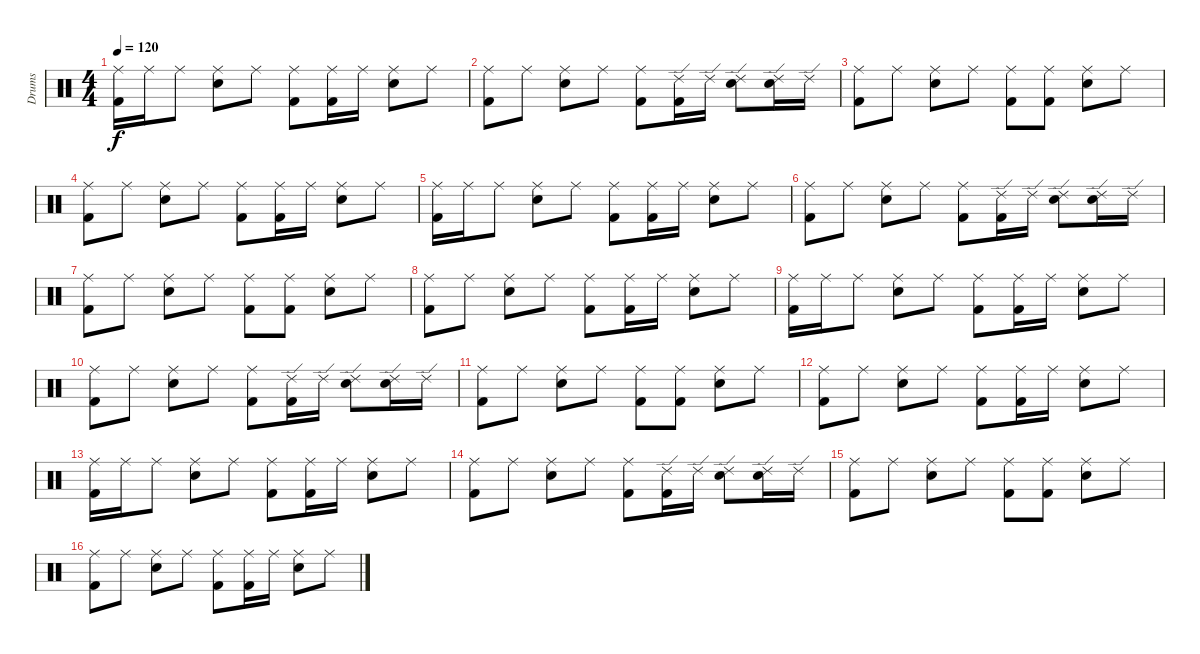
\track ("Drums" "Drums") {instrument percussion}
\staff {score}
\articulation defaults
\ts (4 4)
\tempo 120
\clef neutral
\ks c
("Ride (middle)" "Kick (hit) 2").16{dy f} "Ride (middle)".16 "Ride (middle)".8 ("Ride (middle)" "Electric Snare (hit)").8 "Ride (middle)".8 ("Ride (middle)" "Kick (hit) 2").8 ("Ride (middle)" "Kick (hit) 2").16 "Ride (middle)".16 ("Ride (middle)" "Electric Snare (hit)").8 "Ride (middle)".8 |
("Ride (middle)" "Kick (hit) 2").8 "Ride (middle)".8 ("Ride (middle)" "Electric Snare (hit)").8 "Ride (middle)".8 ("Ride (middle)" "Kick (hit) 2").8 ("Ride (edge) 2" "Kick (hit) 2").16 "Ride (edge) 2".16 ("Ride (edge) 2" "Electric Snare (hit)").8 ("Ride (edge) 2" "Electric Snare (hit)").16 "Ride (edge) 2".16 |
("Ride (middle)" "Kick (hit) 2").8{volume 11} "Ride (middle)".8 ("Ride (middle)" "Electric Snare (hit)").8 "Ride (middle)".8 ("Ride (middle)" "Kick (hit) 2").8 ("Ride (middle)" "Kick (hit) 2").8 ("Ride (middle)" "Electric Snare (hit)").8 "Ride (middle)".8 |
("Ride (middle)" "Kick (hit) 2").8 "Ride (middle)".8 ("Ride (middle)" "Electric Snare (hit)").8 "Ride (middle)".8 ("Ride (middle)" "Kick (hit) 2").8 ("Ride (middle)" "Kick (hit) 2").16 "Ride (middle)".16 ("Ride (middle)" "Electric Snare (hit)").8 "Ride (middle)".8 |
("Ride (middle)" "Kick (hit) 2").16 "Ride (middle)".16 "Ride (middle)".8 ("Ride (middle)" "Electric Snare (hit)").8 "Ride (middle)".8 ("Ride (middle)" "Kick (hit) 2").8 ("Ride (middle)" "Kick (hit) 2").16 "Ride (middle)".16 ("Ride (middle)" "Electric Snare (hit)").8 "Ride (middle)".8 |
("Ride (middle)" "Kick (hit) 2").8 "Ride (middle)".8 ("Ride (middle)" "Electric Snare (hit)").8 "Ride (middle)".8 ("Ride (middle)" "Kick (hit) 2").8 ("Ride (edge) 2" "Kick (hit) 2").16 "Ride (edge) 2".16 ("Ride (edge) 2" "Electric Snare (hit)").8 ("Ride (edge) 2" "Electric Snare (hit)").16 "Ride (edge) 2".16 |
("Ride (middle)" "Kick (hit) 2").8{volume 11} "Ride (middle)".8 ("Ride (middle)" "Electric Snare (hit)").8 "Ride (middle)".8 ("Ride (middle)" "Kick (hit) 2").8 ("Ride (middle)" "Kick (hit) 2").8 ("Ride (middle)" "Electric Snare (hit)").8 "Ride (middle)".8 |
("Ride (middle)" "Kick (hit) 2").8 "Ride (middle)".8 ("Ride (middle)" "Electric Snare (hit)").8 "Ride (middle)".8 ("Ride (middle)" "Kick (hit) 2").8 ("Ride (middle)" "Kick (hit) 2").16 "Ride (middle)".16 ("Ride (middle)" "Electric Snare (hit)").8 "Ride (middle)".8 |
("Ride (middle)" "Kick (hit) 2").16 "Ride (middle)".16 "Ride (middle)".8 ("Ride (middle)" "Electric Snare (hit)").8 "Ride (middle)".8 ("Ride (middle)" "Kick (hit) 2").8 ("Ride (middle)" "Kick (hit) 2").16 "Ride (middle)".16 ("Ride (middle)" "Electric Snare (hit)").8 "Ride (middle)".8 |
("Ride (middle)" "Kick (hit) 2").8 "Ride (middle)".8 ("Ride (middle)" "Electric Snare (hit)").8 "Ride (middle)".8 ("Ride (middle)" "Kick (hit) 2").8 ("Ride (edge) 2" "Kick (hit) 2").16 "Ride (edge) 2".16 ("Ride (edge) 2" "Electric Snare (hit)").8 ("Ride (edge) 2" "Electric Snare (hit)").16 "Ride (edge) 2".16 |
("Ride (middle)" "Kick (hit) 2").8{volume 11} "Ride (middle)".8 ("Ride (middle)" "Electric Snare (hit)").8 "Ride (middle)".8 ("Ride (middle)" "Kick (hit) 2").8 ("Ride (middle)" "Kick (hit) 2").8 ("Ride (middle)" "Electric Snare (hit)").8 "Ride (middle)".8 |
("Ride (middle)" "Kick (hit) 2").8 "Ride (middle)".8 ("Ride (middle)" "Electric Snare (hit)").8 "Ride (middle)".8 ("Ride (middle)" "Kick (hit) 2").8 ("Ride (middle)" "Kick (hit) 2").16 "Ride (middle)".16 ("Ride (middle)" "Electric Snare (hit)").8 "Ride (middle)".8 |
("Ride (middle)" "Kick (hit) 2").16 "Ride (middle)".16 "Ride (middle)".8 ("Ride (middle)" "Electric Snare (hit)").8 "Ride (middle)".8 ("Ride (middle)" "Kick (hit) 2").8 ("Ride (middle)" "Kick (hit) 2").16 "Ride (middle)".16 ("Ride (middle)" "Electric Snare (hit)").8 "Ride (middle)".8 |
("Ride (middle)" "Kick (hit) 2").8 "Ride (middle)".8 ("Ride (middle)" "Electric Snare (hit)").8 "Ride (middle)".8 ("Ride (middle)" "Kick (hit) 2").8 ("Ride (edge) 2" "Kick (hit) 2").16 "Ride (edge) 2".16 ("Ride (edge) 2" "Electric Snare (hit)").8 ("Ride (edge) 2" "Electric Snare (hit)").16 "Ride (edge) 2".16 |
("Ride (middle)" "Kick (hit) 2").8{volume 11} "Ride (middle)".8 ("Ride (middle)" "Electric Snare (hit)").8 "Ride (middle)".8 ("Ride (middle)" "Kick (hit) 2").8 ("Ride (middle)" "Kick (hit) 2").8 ("Ride (middle)" "Electric Snare (hit)").8 "Ride (middle)".8 |
("Ride (middle)" "Kick (hit) 2").8 "Ride (middle)".8 ("Ride (middle)" "Electric Snare (hit)").8 "Ride (middle)".8 ("Ride (middle)" "Kick (hit) 2").8 ("Ride (middle)" "Kick (hit) 2").16 "Ride (middle)".16 ("Ride (middle)" "Electric Snare (hit)").8 "Ride (middle)".8
